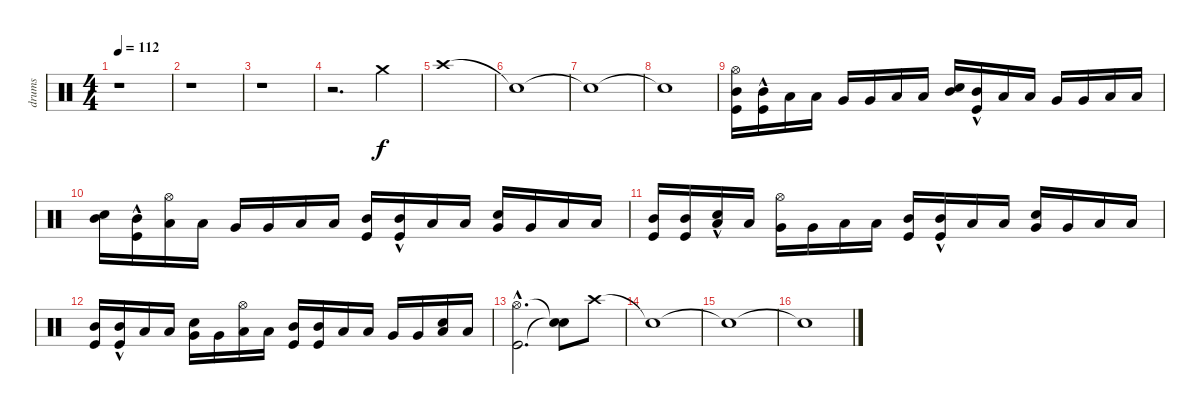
\track ("drums" "drums") {instrument percussion}
\staff {score}
\articulation defaults
\ts (4 4)
\tempo 112
\clef neutral
\ks c
r.1{dy f} |
r.1 |
r.1 |
r.2{d} "Crash medium (hit)".4 |
"Crash high (hit)".1 |
"Snare (hit)"{t}.1 |
"Snare (hit)"{t}.1 |
"Snare (hit)"{t}.1 |
("Kick (hit)" "Mid Tom (hit)" "Hi-Hat (open)").16 ("Kick (hit)"{hac} "Mid Tom (hit)").16 "Low Tom (hit)".16 "Low Tom (hit)".16 "Very Low Tom (hit)".16 "Very Low Tom (hit)".16 "Low Floor Tom (hit)".16 "Low Floor Tom (hit)".16 ("Snare (hit) 2" "Mid Tom (hit)").16 ("Kick (hit)"{hac} "Mid Tom (hit)").16 "Low Tom (hit)".16 "Low Tom (hit)".16 "Very Low Tom (hit)".16 "Very Low Tom (hit)".16 "Low Floor Tom (hit)".16 "Low Floor Tom (hit)".16 |
("Snare (hit) 2" "Mid Tom (hit)").16 ("Kick (hit)"{hac} "Mid Tom (hit)").16 ("Low Tom (hit)" "Hi-Hat (open)").16 "Low Tom (hit)".16 "Very Low Tom (hit)".16 "Very Low Tom (hit)".16 "Low Floor Tom (hit)".16 "Low Floor Tom (hit)".16 ("Kick (hit)" "Mid Tom (hit)").16 ("Kick (hit)"{hac} "Mid Tom (hit)").16 "Low Tom (hit)".16 "Low Tom (hit)".16 ("Snare (hit) 2" "Very Low Tom (hit)").16 "Very Low Tom (hit)".16 "Low Floor Tom (hit)".16 "Low Floor Tom (hit)".16 |
("Kick (hit)" "Mid Tom (hit)").16 ("Kick (hit)" "Mid Tom (hit)").16 ("Snare (hit) 2"{hac} "Low Tom (hit)").16 "Low Tom (hit)".16 ("Very Low Tom (hit)" "Hi-Hat (open)").16 "Very Low Tom (hit)".16 "Low Floor Tom (hit)".16 "Low Floor Tom (hit)".16 ("Kick (hit)" "Mid Tom (hit)").16 ("Kick (hit)"{hac} "Mid Tom (hit)").16 "Low Tom (hit)".16 "Low Tom (hit)".16 ("Snare (hit) 2" "Very Low Tom (hit)").16 "Very Low Tom (hit)".16 "Low Floor Tom (hit)".16 "Low Floor Tom (hit)".16 |
("Kick (hit)" "Mid Tom (hit)").16 ("Kick (hit)"{hac} "Mid Tom (hit)").16 "Low Tom (hit)".16 "Low Tom (hit)".16 ("Snare (hit) 2" "Very Low Tom (hit)").16 "Very Low Tom (hit)".16 ("Low Floor Tom (hit)" "Hi-Hat (open)").16 "Low Floor Tom (hit)".16 ("Kick (hit)" "Mid Tom (hit)").16 ("Kick (hit)" "Mid Tom (hit)").16 "Low Tom (hit)".16 "Low Tom (hit)".16 "Very Low Tom (hit)".16 "Very Low Tom (hit)".16 ("Snare (hit) 2" "Low Floor Tom (hit)").16 "Low Floor Tom (hit)".16 |
("Kick (hit)"{hac} "Hi-Hat (open)"{hac}).2{d} ("Snare (hit)"{t} "Snare (hit)"{t}).8 "Crash high (hit)".8 |
"Snare (hit)"{t}.1 |
"Snare (hit)"{t}.1 |
"Snare (hit)"{t}.1
